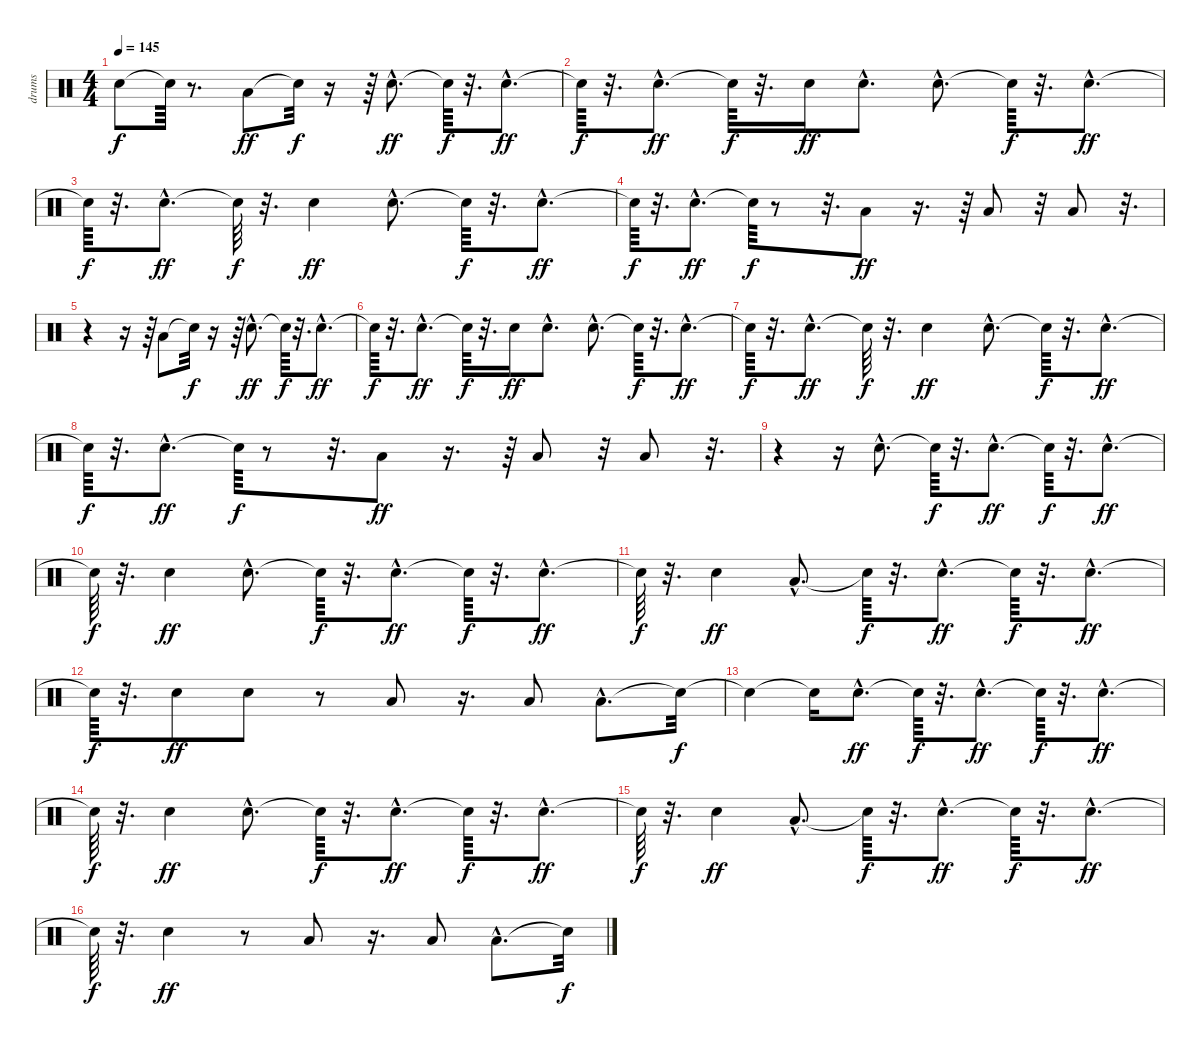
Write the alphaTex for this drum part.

\track ("drums" "drums") {instrument percussion}
\staff {score}
\articulation defaults
\ts (4 4)
\tempo 145
\clef neutral
\ks c "Snare (hit)"{t}.8{dy f} "Snare (hit)"{t}.64
r.8{d} "Low Tom (hit)".8{dy ff} "Snare (hit)"{t}.32{dy f} r.16 r.64 "Metronome (bell)"{hac}.8{d dy ff} "Snare (hit)"{t}.64{dy f} r.32{d} "Metronome (bell)"{hac}.8{d dy ff} |
"Snare (hit)"{t}.64{dy f} r.32{d} "Metronome (bell)"{hac}.8{d dy ff} "Snare (hit)"{t}.64{dy f} r.32{d} "Metronome (bell)".16{dy ff} "Metronome (bell)"{hac}.8{d} "Metronome (bell)"{hac}.8{d} "Snare (hit)"{t}.64{dy f} r.32{d} "Metronome (bell)"{hac}.8{d dy ff} |
"Snare (hit)"{t}.64{dy f} r.32{d} "Metronome (bell)"{hac}.8{d dy ff} "Snare (hit)"{t}.64{dy f} r.32{d} "Metronome (bell)".4{dy ff} "Metronome (bell)"{hac}.8{d} "Snare (hit)"{t}.64{dy f} r.32{d} "Metronome (bell)"{hac}.8{d dy ff} |
"Snare (hit)"{t}.64{dy f} r.32{d} "Metronome (bell)"{hac}.8{d dy ff} "Snare (hit)"{t}.64{dy f} r.8 r.32{d} "Low Tom (hit)".8{dy ff} r.16{d} r.64 "Low Tom (hit)".8 r.32 "Low Tom (hit)".8 r.32{d} |
r.4 r.16 r.64 "Low Tom (hit)".8 "Snare (hit)"{t}.32{dy f} r.16 r.64 "Metronome (bell)"{hac}.8{d dy ff} "Snare (hit)"{t}.64{dy f} r.32{d} "Metronome (bell)"{hac}.8{d dy ff} |
"Snare (hit)"{t}.64{dy f} r.32{d} "Metronome (bell)"{hac}.8{d dy ff} "Snare (hit)"{t}.64{dy f} r.32{d} "Metronome (bell)".16{dy ff} "Metronome (bell)"{hac}.8{d} "Metronome (bell)"{hac}.8{d} "Snare (hit)"{t}.64{dy f} r.32{d} "Metronome (bell)"{hac}.8{d dy ff} |
"Snare (hit)"{t}.64{dy f} r.32{d} "Metronome (bell)"{hac}.8{d dy ff} "Snare (hit)"{t}.64{dy f} r.32{d} "Metronome (bell)".4{dy ff} "Metronome (bell)"{hac}.8{d} "Snare (hit)"{t}.64{dy f} r.32{d} "Metronome (bell)"{hac}.8{d dy ff} |
"Snare (hit)"{t}.64{dy f} r.32{d} "Metronome (bell)"{hac}.8{d dy ff} "Snare (hit)"{t}.64{dy f} r.8 r.32{d} "Low Tom (hit)".8{dy ff} r.16{d} r.64 "Low Tom (hit)".8 r.32 "Low Tom (hit)".8 r.32{d} |
r.4 r.16 "Metronome (bell)"{hac}.8{d} "Snare (hit)"{t}.64{dy f} r.32{d} "Metronome (bell)"{hac}.8{d dy ff} "Snare (hit)"{t}.64{dy f} r.32{d} "Metronome (bell)"{hac}.8{d dy ff} |
"Snare (hit)"{t}.64{dy f} r.32{d} "Metronome (bell)".4{dy ff} "Metronome (bell)"{hac}.8{d} "Snare (hit)"{t}.64{dy f} r.32{d} "Metronome (bell)"{hac}.8{d dy ff} "Snare (hit)"{t}.64{dy f} r.32{d} "Metronome (bell)"{hac}.8{d dy ff} |
"Snare (hit)"{t}.64{dy f} r.32{d} "Metronome (bell)".4{dy ff} "Low Tom (hit)"{hac}.8{d} "Snare (hit)"{t}.64{dy f} r.32{d} "Metronome (bell)"{hac}.8{d dy ff} "Snare (hit)"{t}.64{dy f} r.32{d} "Metronome (bell)"{hac}.8{d dy ff} |
"Snare (hit)"{t}.64{dy f} r.32{d} "Metronome (bell)".8{dy ff} "Metronome (bell)".8 r.8 "Low Tom (hit)".8 r.16{d} "Low Tom (hit)".8 "Low Tom (hit)"{hac}.8{d} "Snare (hit)"{t}.32{dy f} |
"Snare (hit)"{t}.4 "Snare (hit)"{t}.16 "Metronome (bell)"{hac}.8{d dy ff} "Snare (hit)"{t}.64{dy f} r.32{d} "Metronome (bell)"{hac}.8{d dy ff} "Snare (hit)"{t}.64{dy f} r.32{d} "Metronome (bell)"{hac}.8{d dy ff} |
"Snare (hit)"{t}.64{dy f} r.32{d} "Metronome (bell)".4{dy ff} "Metronome (bell)"{hac}.8{d} "Snare (hit)"{t}.64{dy f} r.32{d} "Metronome (bell)"{hac}.8{d dy ff} "Snare (hit)"{t}.64{dy f} r.32{d} "Metronome (bell)"{hac}.8{d dy ff} |
"Snare (hit)"{t}.64{dy f} r.32{d} "Metronome (bell)".4{dy ff} "Low Tom (hit)"{hac}.8{d} "Snare (hit)"{t}.64{dy f} r.32{d} "Metronome (bell)"{hac}.8{d dy ff} "Snare (hit)"{t}.64{dy f} r.32{d} "Metronome (bell)"{hac}.8{d dy ff} |
"Snare (hit)"{t}.64{dy f} r.32{d} "Metronome (bell)".4{dy ff} r.8 "Low Tom (hit)".8 r.16{d} "Low Tom (hit)".8 "Low Tom (hit)"{hac}.8{d} "Snare (hit)"{t}.32{dy f}
